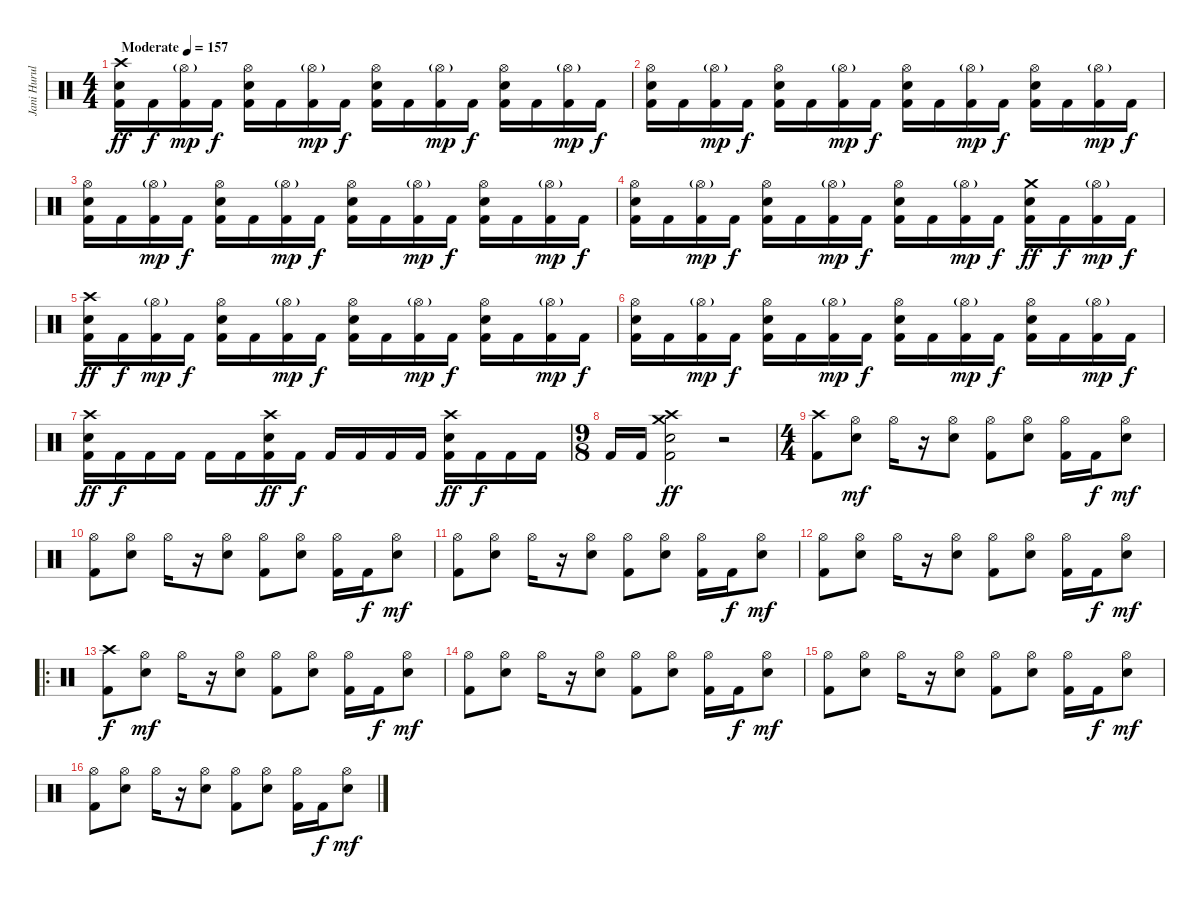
\track ("Jani Hurula" "Jani Hurul") {instrument percussion}
\staff {score}
\articulation defaults
\ts (4 4)
\tempo (157 "Moderate")
\clef neutral
\ks c
("Crash high (hit)" "Snare (hit) 2" "Kick (hit) 2").16{dy ff} "Kick (hit) 2".16{dy f} ("Hi-Hat (open)"{g} "Kick (hit) 2").16{dy mp} "Kick (hit) 2".16{dy f} ("Hi-Hat (open)" "Snare (hit) 2" "Kick (hit) 2").16 "Kick (hit) 2".16 ("Hi-Hat (open)"{g} "Kick (hit) 2").16{dy mp} "Kick (hit) 2".16{dy f} ("Hi-Hat (open)" "Snare (hit) 2" "Kick (hit) 2").16 "Kick (hit) 2".16 ("Hi-Hat (open)"{g} "Kick (hit) 2").16{dy mp} "Kick (hit) 2".16{dy f} ("Hi-Hat (open)" "Snare (hit) 2" "Kick (hit) 2").16 "Kick (hit) 2".16 ("Hi-Hat (open)"{g} "Kick (hit) 2").16{dy mp} "Kick (hit) 2".16{dy f} |
("Hi-Hat (open)" "Snare (hit) 2" "Kick (hit) 2").16 "Kick (hit) 2".16 ("Hi-Hat (open)"{g} "Kick (hit) 2").16{dy mp} "Kick (hit) 2".16{dy f} ("Hi-Hat (open)" "Snare (hit) 2" "Kick (hit) 2").16 "Kick (hit) 2".16 ("Hi-Hat (open)"{g} "Kick (hit) 2").16{dy mp} "Kick (hit) 2".16{dy f} ("Hi-Hat (open)" "Snare (hit) 2" "Kick (hit) 2").16 "Kick (hit) 2".16 ("Hi-Hat (open)"{g} "Kick (hit) 2").16{dy mp} "Kick (hit) 2".16{dy f} ("Hi-Hat (open)" "Snare (hit) 2" "Kick (hit) 2").16 "Kick (hit) 2".16 ("Hi-Hat (open)"{g} "Kick (hit) 2").16{dy mp} "Kick (hit) 2".16{dy f} |
("Hi-Hat (open)" "Snare (hit) 2" "Kick (hit) 2").16 "Kick (hit) 2".16 ("Hi-Hat (open)"{g} "Kick (hit) 2").16{dy mp} "Kick (hit) 2".16{dy f} ("Hi-Hat (open)" "Snare (hit) 2" "Kick (hit) 2").16 "Kick (hit) 2".16 ("Hi-Hat (open)"{g} "Kick (hit) 2").16{dy mp} "Kick (hit) 2".16{dy f} ("Hi-Hat (open)" "Snare (hit) 2" "Kick (hit) 2").16 "Kick (hit) 2".16 ("Hi-Hat (open)"{g} "Kick (hit) 2").16{dy mp} "Kick (hit) 2".16{dy f} ("Hi-Hat (open)" "Snare (hit) 2" "Kick (hit) 2").16 "Kick (hit) 2".16 ("Hi-Hat (open)"{g} "Kick (hit) 2").16{dy mp} "Kick (hit) 2".16{dy f} |
("Hi-Hat (open)" "Snare (hit) 2" "Kick (hit) 2").16 "Kick (hit) 2".16 ("Hi-Hat (open)"{g} "Kick (hit) 2").16{dy mp} "Kick (hit) 2".16{dy f} ("Hi-Hat (open)" "Snare (hit) 2" "Kick (hit) 2").16 "Kick (hit) 2".16 ("Hi-Hat (open)"{g} "Kick (hit) 2").16{dy mp} "Kick (hit) 2".16{dy f} ("Hi-Hat (open)" "Snare (hit) 2" "Kick (hit) 2").16 "Kick (hit) 2".16 ("Hi-Hat (open)"{g} "Kick (hit) 2").16{dy mp} "Kick (hit) 2".16{dy f} ("Crash medium (hit)" "Snare (hit) 2" "Kick (hit) 2").16{dy ff} "Kick (hit) 2".16{dy f} ("Hi-Hat (open)"{g} "Kick (hit) 2").16{dy mp} "Kick (hit) 2".16{dy f} |
("Crash high (hit)" "Snare (hit) 2" "Kick (hit) 2").16{dy ff} "Kick (hit) 2".16{dy f} ("Hi-Hat (open)"{g} "Kick (hit) 2").16{dy mp} "Kick (hit) 2".16{dy f} ("Hi-Hat (open)" "Snare (hit) 2" "Kick (hit) 2").16 "Kick (hit) 2".16 ("Hi-Hat (open)"{g} "Kick (hit) 2").16{dy mp} "Kick (hit) 2".16{dy f} ("Hi-Hat (open)" "Snare (hit) 2" "Kick (hit) 2").16 "Kick (hit) 2".16 ("Hi-Hat (open)"{g} "Kick (hit) 2").16{dy mp} "Kick (hit) 2".16{dy f} ("Hi-Hat (open)" "Snare (hit) 2" "Kick (hit) 2").16 "Kick (hit) 2".16 ("Hi-Hat (open)"{g} "Kick (hit) 2").16{dy mp} "Kick (hit) 2".16{dy f} |
("Hi-Hat (open)" "Snare (hit) 2" "Kick (hit) 2").16 "Kick (hit) 2".16 ("Hi-Hat (open)"{g} "Kick (hit) 2").16{dy mp} "Kick (hit) 2".16{dy f} ("Hi-Hat (open)" "Snare (hit) 2" "Kick (hit) 2").16 "Kick (hit) 2".16 ("Hi-Hat (open)"{g} "Kick (hit) 2").16{dy mp} "Kick (hit) 2".16{dy f} ("Hi-Hat (open)" "Snare (hit) 2" "Kick (hit) 2").16 "Kick (hit) 2".16 ("Hi-Hat (open)"{g} "Kick (hit) 2").16{dy mp} "Kick (hit) 2".16{dy f} ("Hi-Hat (open)" "Snare (hit) 2" "Kick (hit) 2").16 "Kick (hit) 2".16 ("Hi-Hat (open)"{g} "Kick (hit) 2").16{dy mp} "Kick (hit) 2".16{dy f} |
("Crash high (hit)" "Snare (hit) 2" "Kick (hit) 2").16{dy ff} "Kick (hit) 2".16{dy f} "Kick (hit) 2".16 "Kick (hit) 2".16 "Kick (hit) 2".16 "Kick (hit) 2".16 ("Crash high (hit)" "Snare (hit) 2" "Kick (hit) 2").16{dy ff} "Kick (hit) 2".16{dy f} "Kick (hit) 2".16 "Kick (hit) 2".16 "Kick (hit) 2".16 "Kick (hit) 2".16 ("Crash high (hit)" "Snare (hit) 2" "Kick (hit) 2").16{dy ff} "Kick (hit) 2".16{dy f} "Kick (hit) 2".16 "Kick (hit) 2".16 |
\ts (9 8)
"Kick (hit) 2".16 "Kick (hit) 2".16 ("Crash medium (hit)" "Crash high (hit)" "Snare (hit) 2" "Kick (hit) 2").2{dy ff} r.2 |
\ts (4 4)
("Crash high (hit)" "Kick (hit) 2").8 ("Hi-Hat (open)" "Snare (hit) 2").8{dy mf} "Hi-Hat (open)".16 r.16 ("Hi-Hat (open)" "Snare (hit) 2").8 ("Hi-Hat (open)" "Kick (hit) 2").8 ("Hi-Hat (open)" "Snare (hit) 2").8 ("Hi-Hat (open)" "Kick (hit) 2").16 "Kick (hit) 2".16{dy f} ("Hi-Hat (open)" "Snare (hit) 2").8{dy mf} |
("Hi-Hat (open)" "Kick (hit) 2").8 ("Hi-Hat (open)" "Snare (hit) 2").8 "Hi-Hat (open)".16 r.16 ("Hi-Hat (open)" "Snare (hit) 2").8 ("Hi-Hat (open)" "Kick (hit) 2").8 ("Hi-Hat (open)" "Snare (hit) 2").8 ("Hi-Hat (open)" "Kick (hit) 2").16 "Kick (hit) 2".16{dy f} ("Hi-Hat (open)" "Snare (hit) 2").8{dy mf} |
("Hi-Hat (open)" "Kick (hit) 2").8 ("Hi-Hat (open)" "Snare (hit) 2").8 "Hi-Hat (open)".16 r.16 ("Hi-Hat (open)" "Snare (hit) 2").8 ("Hi-Hat (open)" "Kick (hit) 2").8 ("Hi-Hat (open)" "Snare (hit) 2").8 ("Hi-Hat (open)" "Kick (hit) 2").16 "Kick (hit) 2".16{dy f} ("Hi-Hat (open)" "Snare (hit) 2").8{dy mf} |
("Hi-Hat (open)" "Kick (hit) 2").8 ("Hi-Hat (open)" "Snare (hit) 2").8 "Hi-Hat (open)".16 r.16 ("Hi-Hat (open)" "Snare (hit) 2").8 ("Hi-Hat (open)" "Kick (hit) 2").8 ("Hi-Hat (open)" "Snare (hit) 2").8 ("Hi-Hat (open)" "Kick (hit) 2").16 "Kick (hit) 2".16{dy f} ("Hi-Hat (open)" "Snare (hit) 2").8{dy mf} |
\ro
("Crash high (hit)" "Kick (hit) 2").8{dy f} ("Hi-Hat (open)" "Snare (hit) 2").8{dy mf} "Hi-Hat (open)".16 r.16 ("Hi-Hat (open)" "Snare (hit) 2").8 ("Hi-Hat (open)" "Kick (hit) 2").8 ("Hi-Hat (open)" "Snare (hit) 2").8 ("Hi-Hat (open)" "Kick (hit) 2").16 "Kick (hit) 2".16{dy f} ("Hi-Hat (open)" "Snare (hit) 2").8{dy mf} |
("Hi-Hat (open)" "Kick (hit) 2").8 ("Hi-Hat (open)" "Snare (hit) 2").8 "Hi-Hat (open)".16 r.16 ("Hi-Hat (open)" "Snare (hit) 2").8 ("Hi-Hat (open)" "Kick (hit) 2").8 ("Hi-Hat (open)" "Snare (hit) 2").8 ("Hi-Hat (open)" "Kick (hit) 2").16 "Kick (hit) 2".16{dy f} ("Hi-Hat (open)" "Snare (hit) 2").8{dy mf} |
("Hi-Hat (open)" "Kick (hit) 2").8 ("Hi-Hat (open)" "Snare (hit) 2").8 "Hi-Hat (open)".16 r.16 ("Hi-Hat (open)" "Snare (hit) 2").8 ("Hi-Hat (open)" "Kick (hit) 2").8 ("Hi-Hat (open)" "Snare (hit) 2").8 ("Hi-Hat (open)" "Kick (hit) 2").16 "Kick (hit) 2".16{dy f} ("Hi-Hat (open)" "Snare (hit) 2").8{dy mf} |
("Hi-Hat (open)" "Kick (hit) 2").8 ("Hi-Hat (open)" "Snare (hit) 2").8 "Hi-Hat (open)".16 r.16 ("Hi-Hat (open)" "Snare (hit) 2").8 ("Hi-Hat (open)" "Kick (hit) 2").8 ("Hi-Hat (open)" "Snare (hit) 2").8 ("Hi-Hat (open)" "Kick (hit) 2").16 "Kick (hit) 2".16{dy f} ("Hi-Hat (open)" "Snare (hit) 2").8{dy mf}
